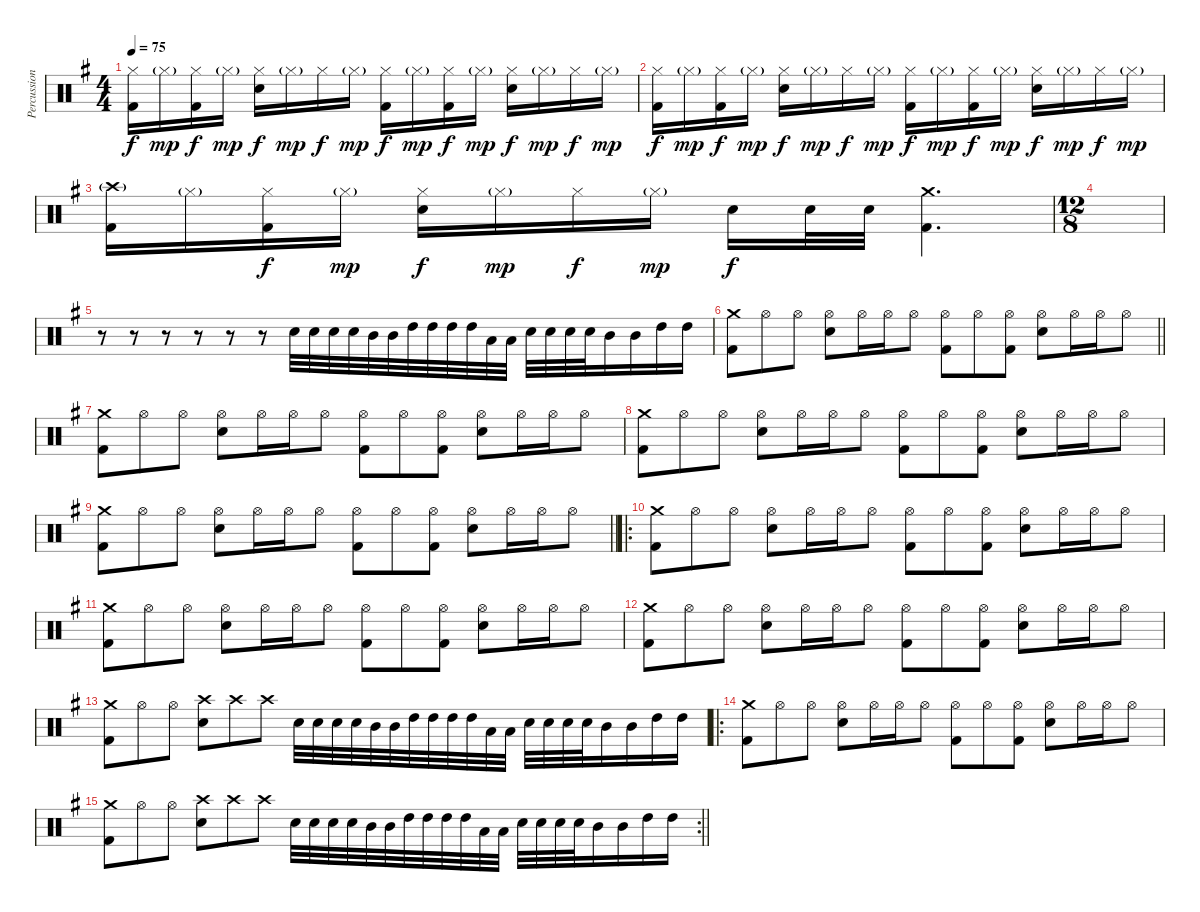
\track ("Percussion" "Percussion") {instrument percussion}
\staff {score}
\articulation defaults
\ts (4 4)
\tempo 75
\clef neutral
\ks g
("Hi-Hat (closed)" "Kick (hit) 2").16{dy f} "Hi-Hat (closed)"{g}.16{dy mp} ("Hi-Hat (closed)" "Kick (hit) 2").16{dy f} "Hi-Hat (closed)"{g}.16{dy mp} ("Hi-Hat (closed)" "Electric Snare (hit)").16{dy f} "Hi-Hat (closed)"{g}.16{dy mp} "Hi-Hat (closed)".16{dy f} "Hi-Hat (closed)"{g}.16{dy mp} ("Hi-Hat (closed)" "Kick (hit) 2").16{dy f} "Hi-Hat (closed)"{g}.16{dy mp} ("Hi-Hat (closed)" "Kick (hit) 2").16{dy f} "Hi-Hat (closed)"{g}.16{dy mp} ("Hi-Hat (closed)" "Electric Snare (hit)").16{dy f} "Hi-Hat (closed)"{g}.16{dy mp} "Hi-Hat (closed)".16{dy f} "Hi-Hat (closed)"{g}.16{dy mp} |
("Hi-Hat (closed)" "Kick (hit) 2").16{dy f} "Hi-Hat (closed)"{g}.16{dy mp} ("Hi-Hat (closed)" "Kick (hit) 2").16{dy f} "Hi-Hat (closed)"{g}.16{dy mp} ("Hi-Hat (closed)" "Electric Snare (hit)").16{dy f} "Hi-Hat (closed)"{g}.16{dy mp} "Hi-Hat (closed)".16{dy f} "Hi-Hat (closed)"{g}.16{dy mp} ("Hi-Hat (closed)" "Kick (hit) 2").16{dy f} "Hi-Hat (closed)"{g}.16{dy mp} ("Hi-Hat (closed)" "Kick (hit) 2").16{dy f} "Hi-Hat (closed)"{g}.16{dy mp} ("Hi-Hat (closed)" "Electric Snare (hit)").16{dy f} "Hi-Hat (closed)"{g}.16{dy mp} "Hi-Hat (closed)".16{dy f} "Hi-Hat (closed)"{g}.16{dy mp} |
("Crash high (hit)"{g} "Kick (hit) 2").16 "Hi-Hat (closed)"{g}.16 ("Hi-Hat (closed)" "Kick (hit) 2").16{dy f} "Hi-Hat (closed)"{g}.16{dy mp} ("Hi-Hat (closed)" "Electric Snare (hit)").16{dy f} "Hi-Hat (closed)"{g}.16{dy mp} "Hi-Hat (closed)".16{dy f} "Hi-Hat (closed)"{g}.16{dy mp} "Electric Snare (hit)".16{dy f} "Snare (hit) 2".32 "Snare (hit) 2".32 ("Crash medium (hit)" "Kick (hit) 2").4{d} |
\ts (12 8)
|
r.8 r.8 r.8 r.8 r.8 r.8 "Snare (hit) 2".32 "Snare (hit) 2".32 "Snare (hit) 2".32 "Snare (hit) 2".32 "Mid Tom (hit)".32 "Mid Tom (hit)".32 "High Tom (hit)".32 "High Tom (hit)".32 "High Tom (hit)".32 "High Tom (hit)".32 "Low Tom (hit)".32 "Low Tom (hit)".32 "Electric Snare (hit)".32 "Electric Snare (hit)".32 "Electric Snare (hit)".32 "Electric Snare (hit)".32 "Mid Tom (hit)".16 "Mid Tom (hit)".16 "High Tom (hit)".16 "High Tom (hit)".16 |
\barLineRight lightlight
("Crash medium (hit)" "Kick (hit) 2").8 "Hi-Hat (open)".8 "Hi-Hat (open)".8 ("Hi-Hat (open)" "Electric Snare (hit)").8 "Hi-Hat (open)".16 "Hi-Hat (open)".16 "Hi-Hat (open)".8 ("Hi-Hat (open)" "Kick (hit) 2").8 "Hi-Hat (open)".8 ("Hi-Hat (open)" "Kick (hit) 2").8 ("Hi-Hat (open)" "Electric Snare (hit)").8 "Hi-Hat (open)".16 "Hi-Hat (open)".16 "Hi-Hat (open)".8 |
("Crash medium (hit)" "Kick (hit) 2").8 "Hi-Hat (open)".8 "Hi-Hat (open)".8 ("Hi-Hat (open)" "Electric Snare (hit)").8 "Hi-Hat (open)".16 "Hi-Hat (open)".16 "Hi-Hat (open)".8 ("Hi-Hat (open)" "Kick (hit) 2").8 "Hi-Hat (open)".8 ("Hi-Hat (open)" "Kick (hit) 2").8 ("Hi-Hat (open)" "Electric Snare (hit)").8 "Hi-Hat (open)".16 "Hi-Hat (open)".16 "Hi-Hat (open)".8 |
("Crash medium (hit)" "Kick (hit) 2").8 "Hi-Hat (open)".8 "Hi-Hat (open)".8 ("Hi-Hat (open)" "Electric Snare (hit)").8 "Hi-Hat (open)".16 "Hi-Hat (open)".16 "Hi-Hat (open)".8 ("Hi-Hat (open)" "Kick (hit) 2").8 "Hi-Hat (open)".8 ("Hi-Hat (open)" "Kick (hit) 2").8 ("Hi-Hat (open)" "Electric Snare (hit)").8 "Hi-Hat (open)".16 "Hi-Hat (open)".16 "Hi-Hat (open)".8 |
\barLineRight lightlight
("Crash medium (hit)" "Kick (hit) 2").8 "Hi-Hat (open)".8 "Hi-Hat (open)".8 ("Hi-Hat (open)" "Electric Snare (hit)").8 "Hi-Hat (open)".16 "Hi-Hat (open)".16 "Hi-Hat (open)".8 ("Hi-Hat (open)" "Kick (hit) 2").8 "Hi-Hat (open)".8 ("Hi-Hat (open)" "Kick (hit) 2").8 ("Hi-Hat (open)" "Electric Snare (hit)").8 "Hi-Hat (open)".16 "Hi-Hat (open)".16 "Hi-Hat (open)".8 |
\ro
("Crash medium (hit)" "Kick (hit) 2").8 "Hi-Hat (open)".8 "Hi-Hat (open)".8 ("Hi-Hat (open)" "Electric Snare (hit)").8 "Hi-Hat (open)".16 "Hi-Hat (open)".16 "Hi-Hat (open)".8 ("Hi-Hat (open)" "Kick (hit) 2").8 "Hi-Hat (open)".8 ("Hi-Hat (open)" "Kick (hit) 2").8 ("Hi-Hat (open)" "Electric Snare (hit)").8 "Hi-Hat (open)".16 "Hi-Hat (open)".16 "Hi-Hat (open)".8 |
("Crash medium (hit)" "Kick (hit) 2").8 "Hi-Hat (open)".8 "Hi-Hat (open)".8 ("Hi-Hat (open)" "Electric Snare (hit)").8 "Hi-Hat (open)".16 "Hi-Hat (open)".16 "Hi-Hat (open)".8 ("Hi-Hat (open)" "Kick (hit) 2").8 "Hi-Hat (open)".8 ("Hi-Hat (open)" "Kick (hit) 2").8 ("Hi-Hat (open)" "Electric Snare (hit)").8 "Hi-Hat (open)".16 "Hi-Hat (open)".16 "Hi-Hat (open)".8 |
("Crash medium (hit)" "Kick (hit) 2").8 "Hi-Hat (open)".8 "Hi-Hat (open)".8 ("Hi-Hat (open)" "Electric Snare (hit)").8 "Hi-Hat (open)".16 "Hi-Hat (open)".16 "Hi-Hat (open)".8 ("Hi-Hat (open)" "Kick (hit) 2").8 "Hi-Hat (open)".8 ("Hi-Hat (open)" "Kick (hit) 2").8 ("Hi-Hat (open)" "Electric Snare (hit)").8 "Hi-Hat (open)".16 "Hi-Hat (open)".16 "Hi-Hat (open)".8 |
("Crash medium (hit)" "Kick (hit) 2").8 "Hi-Hat (open)".8 "Hi-Hat (open)".8 ("Crash high (hit)" "Electric Snare (hit)").8 "Crash high (hit)".8 "Crash high (hit)".8 "Snare (hit) 2".32 "Snare (hit) 2".32 "Snare (hit) 2".32 "Snare (hit) 2".32 "Mid Tom (hit)".32 "Mid Tom (hit)".32 "High Tom (hit)".32 "High Tom (hit)".32 "High Tom (hit)".32 "High Tom (hit)".32 "Low Tom (hit)".32 "Low Tom (hit)".32 "Electric Snare (hit)".32 "Electric Snare (hit)".32 "Electric Snare (hit)".32 "Electric Snare (hit)".32 "Mid Tom (hit)".16 "Mid Tom (hit)".16 "High Tom (hit)".16 "High Tom (hit)".16 |
\ro
("Crash medium (hit)" "Kick (hit) 2").8 "Hi-Hat (open)".8 "Hi-Hat (open)".8 ("Hi-Hat (open)" "Electric Snare (hit)").8 "Hi-Hat (open)".16 "Hi-Hat (open)".16 "Hi-Hat (open)".8 ("Hi-Hat (open)" "Kick (hit) 2").8 "Hi-Hat (open)".8 ("Hi-Hat (open)" "Kick (hit) 2").8 ("Hi-Hat (open)" "Electric Snare (hit)").8 "Hi-Hat (open)".16 "Hi-Hat (open)".16 "Hi-Hat (open)".8 |
\rc 2
\barLineRight lightlight
("Crash medium (hit)" "Kick (hit) 2").8 "Hi-Hat (open)".8 "Hi-Hat (open)".8 ("Crash high (hit)" "Electric Snare (hit)").8 "Crash high (hit)".8 "Crash high (hit)".8 "Snare (hit) 2".32 "Snare (hit) 2".32 "Snare (hit) 2".32 "Snare (hit) 2".32 "Mid Tom (hit)".32 "Mid Tom (hit)".32 "High Tom (hit)".32 "High Tom (hit)".32 "High Tom (hit)".32 "High Tom (hit)".32 "Low Tom (hit)".32 "Low Tom (hit)".32 "Electric Snare (hit)".32 "Electric Snare (hit)".32 "Electric Snare (hit)".32 "Electric Snare (hit)".32 "Mid Tom (hit)".16 "Mid Tom (hit)".16 "High Tom (hit)".16 "High Tom (hit)".16
